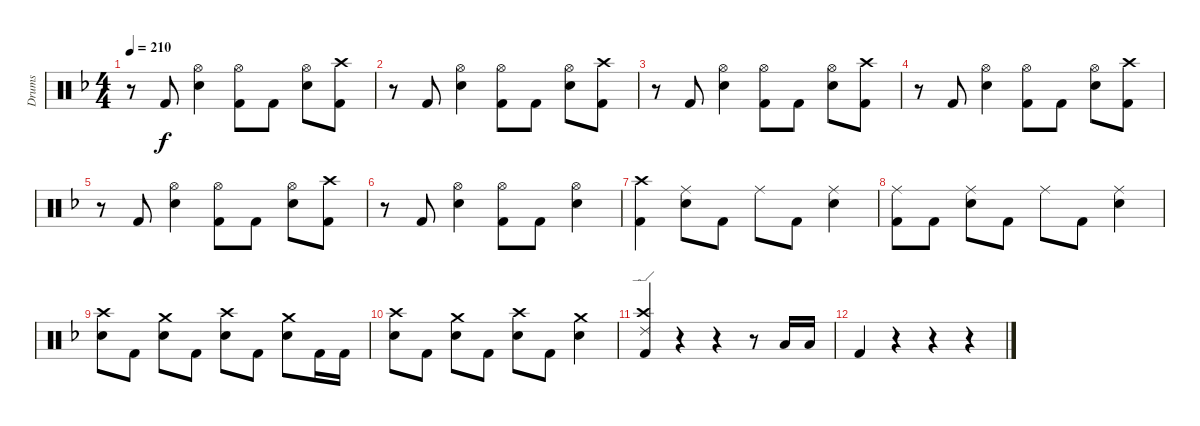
\track ("Drums" "Drums") {instrument percussion}
\staff {score}
\articulation defaults
\ts (4 4)
\tempo 210
\clef neutral
\ks dminor
r.8{dy f} "Kick (hit) 2".8 ("Hi-Hat (open)" "Snare (hit) 2").4 ("Hi-Hat (open)" "Kick (hit) 2").8 "Kick (hit) 2".8 ("Hi-Hat (open)" "Snare (hit) 2").8 ("Kick (hit) 2" "Crash high (hit)").8 |
r.8 "Kick (hit) 2".8 ("Hi-Hat (open)" "Snare (hit) 2").4 ("Hi-Hat (open)" "Kick (hit) 2").8 "Kick (hit) 2".8 ("Hi-Hat (open)" "Snare (hit) 2").8 ("Kick (hit) 2" "Crash high (hit)").8 |
r.8 "Kick (hit) 2".8 ("Hi-Hat (open)" "Snare (hit) 2").4 ("Hi-Hat (open)" "Kick (hit) 2").8 "Kick (hit) 2".8 ("Hi-Hat (open)" "Snare (hit) 2").8 ("Kick (hit) 2" "Crash high (hit)").8 |
r.8 "Kick (hit) 2".8 ("Hi-Hat (open)" "Snare (hit) 2").4 ("Hi-Hat (open)" "Kick (hit) 2").8 "Kick (hit) 2".8 ("Hi-Hat (open)" "Snare (hit) 2").8 ("Kick (hit) 2" "Crash high (hit)").8 |
r.8 "Kick (hit) 2".8 ("Hi-Hat (open)" "Snare (hit) 2").4 ("Hi-Hat (open)" "Kick (hit) 2").8 "Kick (hit) 2".8 ("Hi-Hat (open)" "Snare (hit) 2").8 ("Kick (hit) 2" "Crash high (hit)").8 |
r.8 "Kick (hit) 2".8 ("Hi-Hat (open)" "Snare (hit) 2").4 ("Hi-Hat (open)" "Kick (hit) 2").8 "Kick (hit) 2".8 ("Hi-Hat (open)" "Snare (hit) 2").4 |
("Crash high (hit)" "Kick (hit) 2").4 ("Snare (hit) 2" "Ride (middle)").8 "Kick (hit) 2".8 "Ride (middle)".8 "Kick (hit) 2".8 ("Ride (middle)" "Snare (hit) 2").4 |
("Ride (middle)" "Kick (hit) 2").8 "Kick (hit) 2".8 ("Snare (hit) 2" "Ride (middle)").8 "Kick (hit) 2".8 "Ride (middle)".8 "Kick (hit) 2".8 ("Ride (middle)" "Snare (hit) 2").4 |
("Crash high (hit)" "Snare (hit) 2").8 "Kick (hit) 2".8 ("Snare (hit) 2" "Crash medium (hit)").8 "Kick (hit) 2".8 ("Snare (hit) 2" "Crash high (hit)").8 "Kick (hit) 2".8 ("Crash medium (hit)" "Snare (hit) 2").8 "Kick (hit) 2".16 "Kick (hit) 2".16 |
("Crash high (hit)" "Snare (hit) 2").8 "Kick (hit) 2".8 ("Snare (hit) 2" "Crash medium (hit)").8 "Kick (hit) 2".8 ("Snare (hit) 2" "Crash high (hit)").8 "Kick (hit) 2".8 ("Crash medium (hit)" "Snare (hit) 2").4 |
("Kick (hit) 2" "Ride (edge) 2" "Crash high (hit)").4 r.4 r.4 r.8 "Low Tom (hit)".16 "Low Tom (hit)".16 |
"Kick (hit) 2".4 r.4 r.4 r.4
